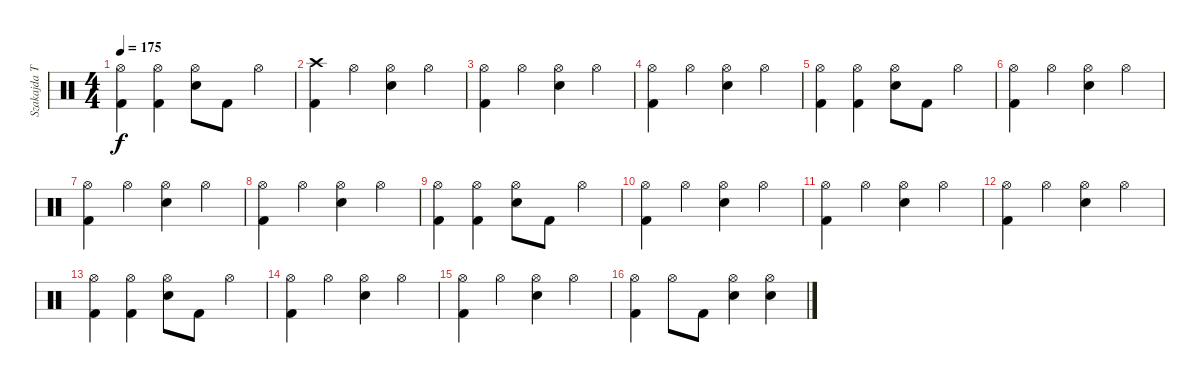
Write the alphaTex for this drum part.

\track ("Szakajda Tibi" "Szakajda T") {instrument percussion}
\staff {score}
\articulation defaults
\ts (4 4)
\tempo 175
\clef neutral
\ks c
("Hi-Hat (open)" "Kick (hit) 2").4{dy f} ("Hi-Hat (open)" "Kick (hit) 2").4 ("Hi-Hat (open)" "Snare (hit) 2").8 "Kick (hit) 2".8 "Hi-Hat (open)".4 |
("Crash high (hit)" "Kick (hit) 2").4 "Hi-Hat (open)".4 ("Hi-Hat (open)" "Snare (hit) 2").4 "Hi-Hat (open)".4 |
("Hi-Hat (open)" "Kick (hit) 2").4 "Hi-Hat (open)".4 ("Hi-Hat (open)" "Snare (hit) 2").4 "Hi-Hat (open)".4 |
("Hi-Hat (open)" "Kick (hit) 2").4 "Hi-Hat (open)".4 ("Hi-Hat (open)" "Snare (hit) 2").4 "Hi-Hat (open)".4 |
("Hi-Hat (open)" "Kick (hit) 2").4 ("Hi-Hat (open)" "Kick (hit) 2").4 ("Hi-Hat (open)" "Snare (hit) 2").8 "Kick (hit) 2".8 "Hi-Hat (open)".4 |
("Hi-Hat (open)" "Kick (hit) 2").4 "Hi-Hat (open)".4 ("Hi-Hat (open)" "Snare (hit) 2").4 "Hi-Hat (open)".4 |
("Hi-Hat (open)" "Kick (hit) 2").4 "Hi-Hat (open)".4 ("Hi-Hat (open)" "Snare (hit) 2").4 "Hi-Hat (open)".4 |
("Hi-Hat (open)" "Kick (hit) 2").4 "Hi-Hat (open)".4 ("Hi-Hat (open)" "Snare (hit) 2").4 "Hi-Hat (open)".4 |
("Hi-Hat (open)" "Kick (hit) 2").4 ("Hi-Hat (open)" "Kick (hit) 2").4 ("Hi-Hat (open)" "Snare (hit) 2").8 "Kick (hit) 2".8 "Hi-Hat (open)".4 |
("Hi-Hat (open)" "Kick (hit) 2").4 "Hi-Hat (open)".4 ("Hi-Hat (open)" "Snare (hit) 2").4 "Hi-Hat (open)".4 |
("Hi-Hat (open)" "Kick (hit) 2").4 "Hi-Hat (open)".4 ("Hi-Hat (open)" "Snare (hit) 2").4 "Hi-Hat (open)".4 |
("Hi-Hat (open)" "Kick (hit) 2").4 "Hi-Hat (open)".4 ("Hi-Hat (open)" "Snare (hit) 2").4 "Hi-Hat (open)".4 |
("Hi-Hat (open)" "Kick (hit) 2").4 ("Hi-Hat (open)" "Kick (hit) 2").4 ("Hi-Hat (open)" "Snare (hit) 2").8 "Kick (hit) 2".8 "Hi-Hat (open)".4 |
("Hi-Hat (open)" "Kick (hit) 2").4 "Hi-Hat (open)".4 ("Hi-Hat (open)" "Snare (hit) 2").4 "Hi-Hat (open)".4 |
("Hi-Hat (open)" "Kick (hit) 2").4 "Hi-Hat (open)".4 ("Hi-Hat (open)" "Snare (hit) 2").4 "Hi-Hat (open)".4 |
("Hi-Hat (open)" "Kick (hit) 2").4 "Hi-Hat (open)".8 "Kick (hit) 2".8 ("Hi-Hat (open)" "Snare (hit) 2").4 ("Hi-Hat (open)" "Snare (hit) 2").4
